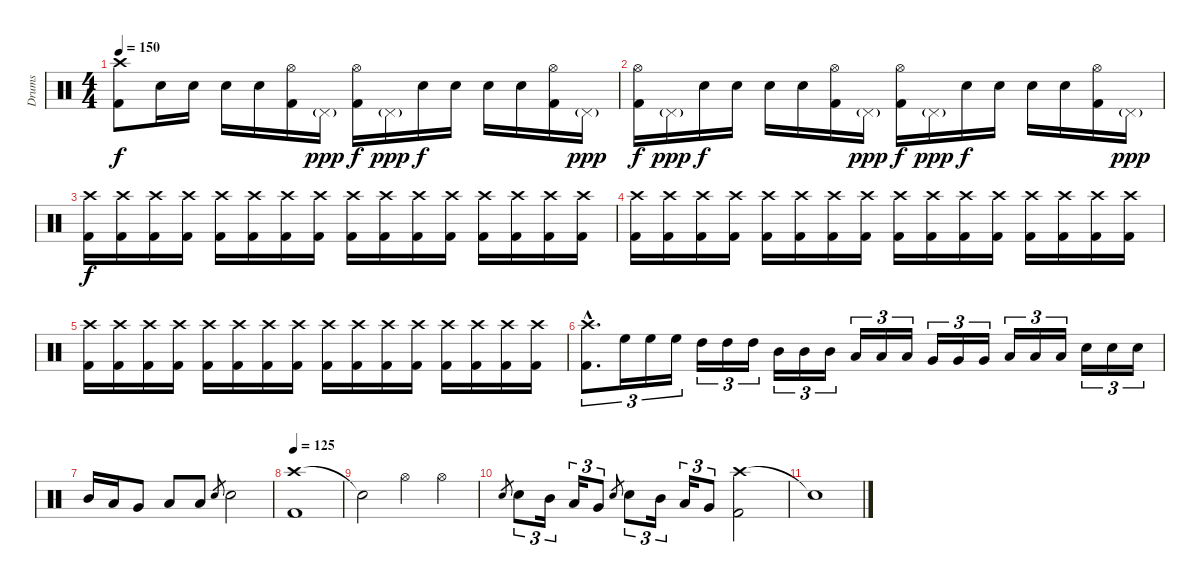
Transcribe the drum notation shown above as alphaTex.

\track ("Drums" "Drums") {instrument percussion}
\staff {score}
\articulation defaults
\ts (4 4)
\tempo 150
\clef neutral
\ks c
("Crash high (hit)" "Kick (hit) 2").8{dy f} "Electric Snare (hit)".16 "Electric Snare (hit)".16 "Electric Snare (hit)".16 "Electric Snare (hit)".16 ("Hi-Hat (open)" "Kick (hit) 2").16 "Pedal Hi-Hat (hit)"{g}.16{dy ppp} ("Hi-Hat (open)" "Kick (hit) 2").16{dy f} "Pedal Hi-Hat (hit)"{g}.16{dy ppp} "Electric Snare (hit)".16{dy f} "Electric Snare (hit)".16 "Electric Snare (hit)".16 "Electric Snare (hit)".16 ("Hi-Hat (open)" "Kick (hit) 2").16 "Pedal Hi-Hat (hit)"{g}.16{dy ppp} |
("Hi-Hat (open)" "Kick (hit) 2").16{dy f} "Pedal Hi-Hat (hit)"{g}.16{dy ppp} "Electric Snare (hit)".16{dy f} "Electric Snare (hit)".16 "Electric Snare (hit)".16 "Electric Snare (hit)".16 ("Hi-Hat (open)" "Kick (hit) 2").16 "Pedal Hi-Hat (hit)"{g}.16{dy ppp} ("Hi-Hat (open)" "Kick (hit) 2").16{dy f} "Pedal Hi-Hat (hit)"{g}.16{dy ppp} "Electric Snare (hit)".16{dy f} "Electric Snare (hit)".16 "Electric Snare (hit)".16 "Electric Snare (hit)".16 ("Hi-Hat (open)" "Kick (hit) 2").16 "Pedal Hi-Hat (hit)"{g}.16{dy ppp} |
("Crash high (hit)" "Kick (hit) 2").16{dy f} ("Crash high (hit)" "Kick (hit) 2").16 ("Crash high (hit)" "Kick (hit) 2").16 ("Crash high (hit)" "Kick (hit) 2").16 ("Crash high (hit)" "Kick (hit) 2").16 ("Crash high (hit)" "Kick (hit) 2").16 ("Crash high (hit)" "Kick (hit) 2").16 ("Crash high (hit)" "Kick (hit) 2").16 ("Crash high (hit)" "Kick (hit) 2").16 ("Crash high (hit)" "Kick (hit) 2").16 ("Crash high (hit)" "Kick (hit) 2").16 ("Crash high (hit)" "Kick (hit) 2").16 ("Crash high (hit)" "Kick (hit) 2").16 ("Crash high (hit)" "Kick (hit) 2").16 ("Crash high (hit)" "Kick (hit) 2").16 ("Crash high (hit)" "Kick (hit) 2").16 |
("Crash high (hit)" "Kick (hit) 2").16 ("Crash high (hit)" "Kick (hit) 2").16 ("Crash high (hit)" "Kick (hit) 2").16 ("Crash high (hit)" "Kick (hit) 2").16 ("Crash high (hit)" "Kick (hit) 2").16 ("Crash high (hit)" "Kick (hit) 2").16 ("Crash high (hit)" "Kick (hit) 2").16 ("Crash high (hit)" "Kick (hit) 2").16 ("Crash high (hit)" "Kick (hit) 2").16 ("Crash high (hit)" "Kick (hit) 2").16 ("Crash high (hit)" "Kick (hit) 2").16 ("Crash high (hit)" "Kick (hit) 2").16 ("Crash high (hit)" "Kick (hit) 2").16 ("Crash high (hit)" "Kick (hit) 2").16 ("Crash high (hit)" "Kick (hit) 2").16 ("Crash high (hit)" "Kick (hit) 2").16 |
("Crash high (hit)" "Kick (hit) 2").16 ("Crash high (hit)" "Kick (hit) 2").16 ("Crash high (hit)" "Kick (hit) 2").16 ("Crash high (hit)" "Kick (hit) 2").16 ("Crash high (hit)" "Kick (hit) 2").16 ("Crash high (hit)" "Kick (hit) 2").16 ("Crash high (hit)" "Kick (hit) 2").16 ("Crash high (hit)" "Kick (hit) 2").16 ("Crash high (hit)" "Kick (hit) 2").16 ("Crash high (hit)" "Kick (hit) 2").16 ("Crash high (hit)" "Kick (hit) 2").16 ("Crash high (hit)" "Kick (hit) 2").16 ("Crash high (hit)" "Kick (hit) 2").16 ("Crash high (hit)" "Kick (hit) 2").16 ("Crash high (hit)" "Kick (hit) 2").16 ("Crash high (hit)" "Kick (hit) 2").16 |
("Crash high (hit)"{hac} "Kick (hit) 2"{hac}).8{d tu (3 2)} "High Floor Tom (hit)".16{tu (3 2)} "High Floor Tom (hit)".16{tu (3 2)} "High Floor Tom (hit)".16{tu (3 2)} "High Tom (hit)".16{tu (3 2)} "High Tom (hit)".16{tu (3 2)} "High Tom (hit)".16{tu (3 2)} "Mid Tom (hit)".16{tu (3 2)} "Mid Tom (hit)".16{tu (3 2)} "Mid Tom (hit)".16{tu (3 2)} "Low Tom (hit)".16{tu (3 2)} "Low Tom (hit)".16{tu (3 2)} "Low Tom (hit)".16{tu (3 2)} "Very Low Tom (hit)".16{tu (3 2)} "Very Low Tom (hit)".16{tu (3 2)} "Very Low Tom (hit)".16{tu (3 2)} "Low Floor Tom (hit)".16{tu (3 2)} "Low Floor Tom (hit)".16{tu (3 2)} "Low Floor Tom (hit)".16{tu (3 2)} "Electric Snare (hit)".16{tu (3 2)} "Electric Snare (hit)".16{tu (3 2)} "Electric Snare (hit)".16{tu (3 2)} |
"Mid Tom (hit)".16 "Low Tom (hit)".16 "Very Low Tom (hit)".8 "Low Floor Tom (hit)".8 "Low Floor Tom (hit)".8 "Electric Snare (hit)".8{gr} "Electric Snare (hit)".2 |
\tempo 125
("Crash high (hit)" "Kick (hit) 2").1 |
"Snare (hit)"{t}.2 "Hi-Hat (open)".4 "Hi-Hat (open)".4 |
"Electric Snare (hit)".8{gr} "Electric Snare (hit)".8{tu (3 2)} "Mid Tom (hit)".16{tu (3 2)} "Low Tom (hit)".16{tu (3 2)} "Very Low Tom (hit)".8{tu (3 2)} "Electric Snare (hit)".8{gr} "Electric Snare (hit)".8{tu (3 2)} "Mid Tom (hit)".16{tu (3 2)} "Low Tom (hit)".16{tu (3 2)} "Very Low Tom (hit)".8{tu (3 2)} ("Crash high (hit)" "Kick (hit) 2").2 |
"Snare (hit)"{t}.1
